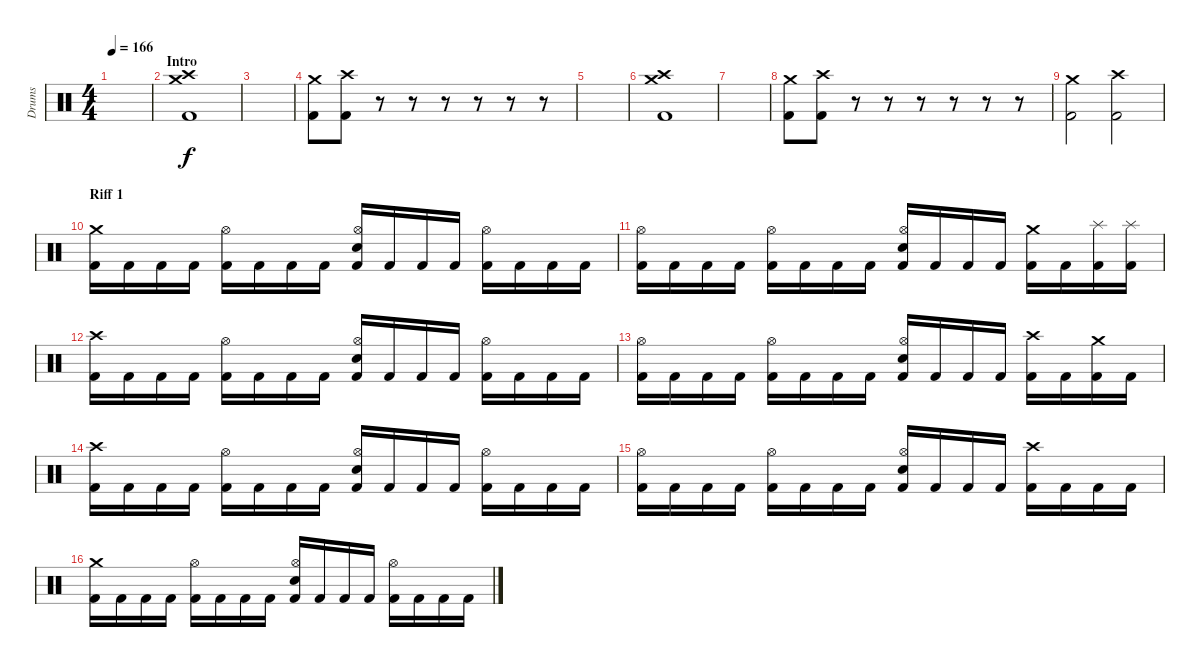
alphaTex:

\track ("Drums" "Drums") {instrument percussion}
\staff {score}
\articulation defaults
\ts (4 4)
\tempo 166
\clef neutral
\ks c
|
\section ("" "Intro")
("Crash medium (hit)" "Crash high (hit)" "Kick (hit) 2").1 |
|
("Crash medium (hit)" "Kick (hit) 2").8 ("Crash high (hit)" "Kick (hit) 2").8 r.8{volume 0} r.8 r.8 r.8 r.8 r.8 |
|
("Crash medium (hit)" "Crash high (hit)" "Kick (hit) 2").1{volume 16} |
|
("Crash medium (hit)" "Kick (hit) 2").8 ("Crash high (hit)" "Kick (hit) 2").8 r.8{volume 0} r.8 r.8 r.8 r.8 r.8 |
("Crash medium (hit)" "Kick (hit) 2").2{volume 16} ("Crash high (hit)" "Kick (hit) 2").2 |
\section ("" "Riff 1")
("Crash medium (hit)" "Kick (hit) 2").16 "Kick (hit) 2".16 "Kick (hit) 2".16 "Kick (hit) 2".16 ("Hi-Hat (open)" "Kick (hit) 2").16 "Kick (hit) 2".16 "Kick (hit) 2".16 "Kick (hit) 2".16 ("Hi-Hat (open)" "Electric Snare (hit)" "Kick (hit) 2").16 "Kick (hit) 2".16 "Kick (hit) 2".16 "Kick (hit) 2".16 ("Hi-Hat (open)" "Kick (hit) 2").16 "Kick (hit) 2".16 "Kick (hit) 2".16 "Kick (hit) 2".16 |
("Hi-Hat (open)" "Kick (hit) 2").16 "Kick (hit) 2".16 "Kick (hit) 2".16 "Kick (hit) 2".16 ("Hi-Hat (open)" "Kick (hit) 2").16 "Kick (hit) 2".16 "Kick (hit) 2".16 "Kick (hit) 2".16 ("Hi-Hat (open)" "Electric Snare (hit)" "Kick (hit) 2").16 "Kick (hit) 2".16 "Kick (hit) 2".16 "Kick (hit) 2".16 ("Crash medium (hit)" "Kick (hit) 2").16 "Kick (hit) 2".16 ("Splash (hit)" "Kick (hit) 2").16 ("Splash (hit)" "Kick (hit) 2").16 |
("Crash high (hit)" "Kick (hit) 2").16 "Kick (hit) 2".16 "Kick (hit) 2".16 "Kick (hit) 2".16 ("Hi-Hat (open)" "Kick (hit) 2").16 "Kick (hit) 2".16 "Kick (hit) 2".16 "Kick (hit) 2".16 ("Hi-Hat (open)" "Electric Snare (hit)" "Kick (hit) 2").16 "Kick (hit) 2".16 "Kick (hit) 2".16 "Kick (hit) 2".16 ("Hi-Hat (open)" "Kick (hit) 2").16 "Kick (hit) 2".16 "Kick (hit) 2".16 "Kick (hit) 2".16 |
("Hi-Hat (open)" "Kick (hit) 2").16 "Kick (hit) 2".16 "Kick (hit) 2".16 "Kick (hit) 2".16 ("Hi-Hat (open)" "Kick (hit) 2").16 "Kick (hit) 2".16 "Kick (hit) 2".16 "Kick (hit) 2".16 ("Hi-Hat (open)" "Electric Snare (hit)" "Kick (hit) 2").16 "Kick (hit) 2".16 "Kick (hit) 2".16 "Kick (hit) 2".16 ("Crash high (hit)" "Kick (hit) 2").16 "Kick (hit) 2".16 ("Crash medium (hit)" "Kick (hit) 2").16 "Kick (hit) 2".16 |
("Crash high (hit)" "Kick (hit) 2").16 "Kick (hit) 2".16 "Kick (hit) 2".16 "Kick (hit) 2".16 ("Hi-Hat (open)" "Kick (hit) 2").16 "Kick (hit) 2".16 "Kick (hit) 2".16 "Kick (hit) 2".16 ("Hi-Hat (open)" "Electric Snare (hit)" "Kick (hit) 2").16 "Kick (hit) 2".16 "Kick (hit) 2".16 "Kick (hit) 2".16 ("Hi-Hat (open)" "Kick (hit) 2").16 "Kick (hit) 2".16 "Kick (hit) 2".16 "Kick (hit) 2".16 |
("Hi-Hat (open)" "Kick (hit) 2").16 "Kick (hit) 2".16 "Kick (hit) 2".16 "Kick (hit) 2".16 ("Hi-Hat (open)" "Kick (hit) 2").16 "Kick (hit) 2".16 "Kick (hit) 2".16 "Kick (hit) 2".16 ("Hi-Hat (open)" "Electric Snare (hit)" "Kick (hit) 2").16 "Kick (hit) 2".16 "Kick (hit) 2".16 "Kick (hit) 2".16 ("Crash high (hit)" "Kick (hit) 2").16 "Kick (hit) 2".16 "Kick (hit) 2".16 "Kick (hit) 2".16 |
("Crash medium (hit)" "Kick (hit) 2").16 "Kick (hit) 2".16 "Kick (hit) 2".16 "Kick (hit) 2".16 ("Hi-Hat (open)" "Kick (hit) 2").16 "Kick (hit) 2".16 "Kick (hit) 2".16 "Kick (hit) 2".16 ("Hi-Hat (open)" "Electric Snare (hit)" "Kick (hit) 2").16 "Kick (hit) 2".16 "Kick (hit) 2".16 "Kick (hit) 2".16 ("Hi-Hat (open)" "Kick (hit) 2").16 "Kick (hit) 2".16 "Kick (hit) 2".16 "Kick (hit) 2".16
